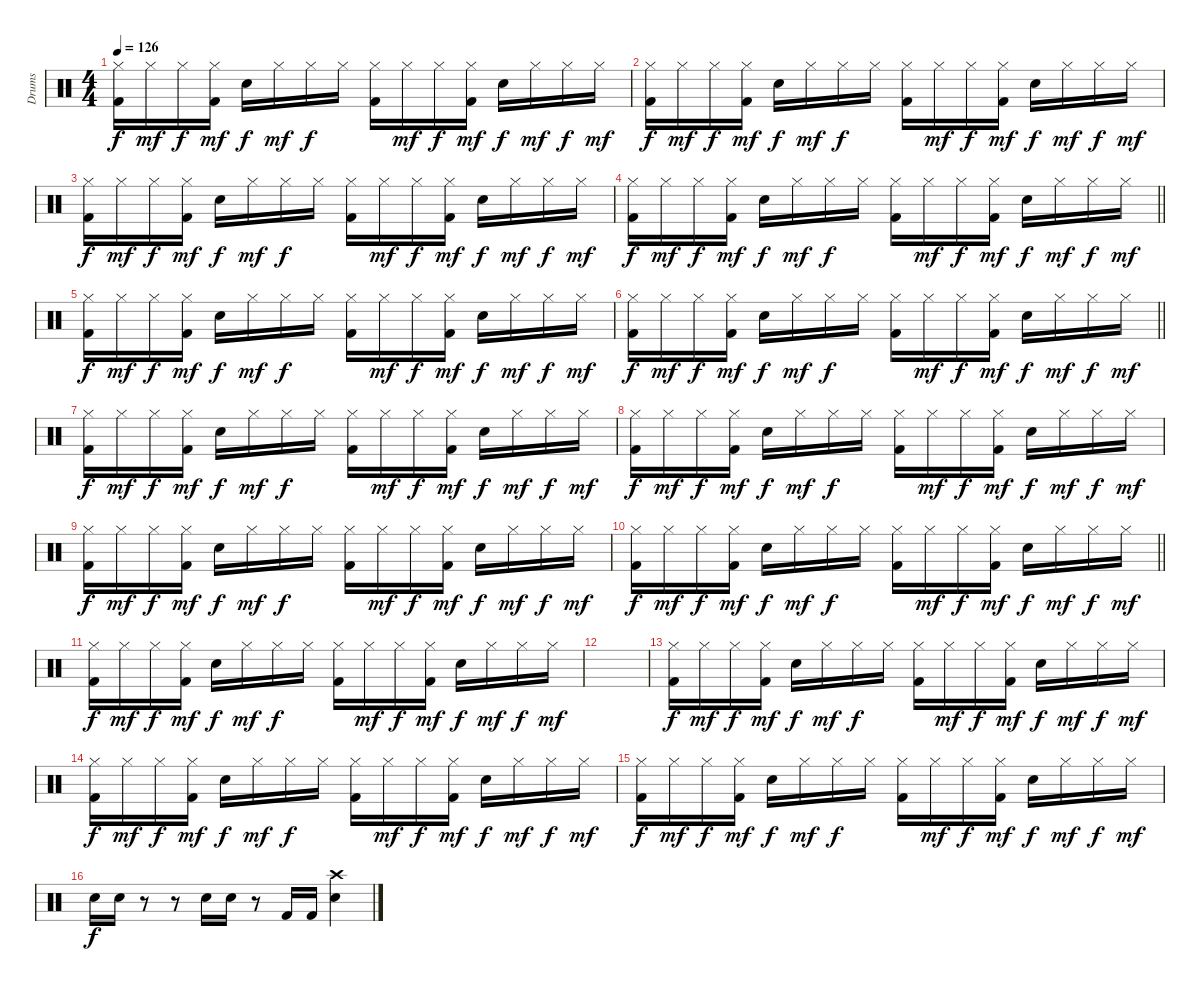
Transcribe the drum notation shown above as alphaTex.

\track ("Drums" "Drums") {instrument percussion}
\staff {score}
\articulation defaults
\ts (4 4)
\tempo 126
\clef neutral
\ks c
("Hi-Hat (closed)" "Kick (hit) 2").16{dy f} "Hi-Hat (closed)".16{dy mf} "Hi-Hat (closed)".16{dy f} ("Hi-Hat (closed)" "Kick (hit) 2").16{dy mf} "Snare (hit) 2".16{dy f} "Hi-Hat (closed)".16{dy mf} "Hi-Hat (closed)".16{dy f} "Hi-Hat (closed)".16 ("Hi-Hat (closed)" "Kick (hit) 2").16 "Hi-Hat (closed)".16{dy mf} "Hi-Hat (closed)".16{dy f} ("Hi-Hat (closed)" "Kick (hit) 2").16{dy mf} "Snare (hit) 2".16{dy f} "Hi-Hat (closed)".16{dy mf} "Hi-Hat (closed)".16{dy f} "Hi-Hat (closed)".16{dy mf} |
("Hi-Hat (closed)" "Kick (hit) 2").16{dy f} "Hi-Hat (closed)".16{dy mf} "Hi-Hat (closed)".16{dy f} ("Hi-Hat (closed)" "Kick (hit) 2").16{dy mf} "Snare (hit) 2".16{dy f} "Hi-Hat (closed)".16{dy mf} "Hi-Hat (closed)".16{dy f} "Hi-Hat (closed)".16 ("Hi-Hat (closed)" "Kick (hit) 2").16 "Hi-Hat (closed)".16{dy mf} "Hi-Hat (closed)".16{dy f} ("Hi-Hat (closed)" "Kick (hit) 2").16{dy mf} "Snare (hit) 2".16{dy f} "Hi-Hat (closed)".16{dy mf} "Hi-Hat (closed)".16{dy f} "Hi-Hat (closed)".16{dy mf} |
("Hi-Hat (closed)" "Kick (hit) 2").16{dy f} "Hi-Hat (closed)".16{dy mf} "Hi-Hat (closed)".16{dy f} ("Hi-Hat (closed)" "Kick (hit) 2").16{dy mf} "Snare (hit) 2".16{dy f} "Hi-Hat (closed)".16{dy mf} "Hi-Hat (closed)".16{dy f} "Hi-Hat (closed)".16 ("Hi-Hat (closed)" "Kick (hit) 2").16 "Hi-Hat (closed)".16{dy mf} "Hi-Hat (closed)".16{dy f} ("Hi-Hat (closed)" "Kick (hit) 2").16{dy mf} "Snare (hit) 2".16{dy f} "Hi-Hat (closed)".16{dy mf} "Hi-Hat (closed)".16{dy f} "Hi-Hat (closed)".16{dy mf} |
\barLineRight lightlight
("Hi-Hat (closed)" "Kick (hit) 2").16{dy f} "Hi-Hat (closed)".16{dy mf} "Hi-Hat (closed)".16{dy f} ("Hi-Hat (closed)" "Kick (hit) 2").16{dy mf} "Snare (hit) 2".16{dy f} "Hi-Hat (closed)".16{dy mf} "Hi-Hat (closed)".16{dy f} "Hi-Hat (closed)".16 ("Hi-Hat (closed)" "Kick (hit) 2").16 "Hi-Hat (closed)".16{dy mf} "Hi-Hat (closed)".16{dy f} ("Hi-Hat (closed)" "Kick (hit) 2").16{dy mf} "Snare (hit) 2".16{dy f} "Hi-Hat (closed)".16{dy mf} "Hi-Hat (closed)".16{dy f} "Hi-Hat (closed)".16{dy mf} |
("Hi-Hat (closed)" "Kick (hit) 2").16{dy f} "Hi-Hat (closed)".16{dy mf} "Hi-Hat (closed)".16{dy f} ("Hi-Hat (closed)" "Kick (hit) 2").16{dy mf} "Snare (hit) 2".16{dy f} "Hi-Hat (closed)".16{dy mf} "Hi-Hat (closed)".16{dy f} "Hi-Hat (closed)".16 ("Hi-Hat (closed)" "Kick (hit) 2").16 "Hi-Hat (closed)".16{dy mf} "Hi-Hat (closed)".16{dy f} ("Hi-Hat (closed)" "Kick (hit) 2").16{dy mf} "Snare (hit) 2".16{dy f} "Hi-Hat (closed)".16{dy mf} "Hi-Hat (closed)".16{dy f} "Hi-Hat (closed)".16{dy mf} |
\barLineRight lightlight
("Hi-Hat (closed)" "Kick (hit) 2").16{dy f} "Hi-Hat (closed)".16{dy mf} "Hi-Hat (closed)".16{dy f} ("Hi-Hat (closed)" "Kick (hit) 2").16{dy mf} "Snare (hit) 2".16{dy f} "Hi-Hat (closed)".16{dy mf} "Hi-Hat (closed)".16{dy f} "Hi-Hat (closed)".16 ("Hi-Hat (closed)" "Kick (hit) 2").16 "Hi-Hat (closed)".16{dy mf} "Hi-Hat (closed)".16{dy f} ("Hi-Hat (closed)" "Kick (hit) 2").16{dy mf} "Snare (hit) 2".16{dy f} "Hi-Hat (closed)".16{dy mf} "Hi-Hat (closed)".16{dy f} "Hi-Hat (closed)".16{dy mf} |
("Hi-Hat (closed)" "Kick (hit) 2").16{dy f} "Hi-Hat (closed)".16{dy mf} "Hi-Hat (closed)".16{dy f} ("Hi-Hat (closed)" "Kick (hit) 2").16{dy mf} "Snare (hit) 2".16{dy f} "Hi-Hat (closed)".16{dy mf} "Hi-Hat (closed)".16{dy f} "Hi-Hat (closed)".16 ("Hi-Hat (closed)" "Kick (hit) 2").16 "Hi-Hat (closed)".16{dy mf} "Hi-Hat (closed)".16{dy f} ("Hi-Hat (closed)" "Kick (hit) 2").16{dy mf} "Snare (hit) 2".16{dy f} "Hi-Hat (closed)".16{dy mf} "Hi-Hat (closed)".16{dy f} "Hi-Hat (closed)".16{dy mf} |
("Hi-Hat (closed)" "Kick (hit) 2").16{dy f} "Hi-Hat (closed)".16{dy mf} "Hi-Hat (closed)".16{dy f} ("Hi-Hat (closed)" "Kick (hit) 2").16{dy mf} "Snare (hit) 2".16{dy f} "Hi-Hat (closed)".16{dy mf} "Hi-Hat (closed)".16{dy f} "Hi-Hat (closed)".16 ("Hi-Hat (closed)" "Kick (hit) 2").16 "Hi-Hat (closed)".16{dy mf} "Hi-Hat (closed)".16{dy f} ("Hi-Hat (closed)" "Kick (hit) 2").16{dy mf} "Snare (hit) 2".16{dy f} "Hi-Hat (closed)".16{dy mf} "Hi-Hat (closed)".16{dy f} "Hi-Hat (closed)".16{dy mf} |
("Hi-Hat (closed)" "Kick (hit) 2").16{dy f} "Hi-Hat (closed)".16{dy mf} "Hi-Hat (closed)".16{dy f} ("Hi-Hat (closed)" "Kick (hit) 2").16{dy mf} "Snare (hit) 2".16{dy f} "Hi-Hat (closed)".16{dy mf} "Hi-Hat (closed)".16{dy f} "Hi-Hat (closed)".16 ("Hi-Hat (closed)" "Kick (hit) 2").16 "Hi-Hat (closed)".16{dy mf} "Hi-Hat (closed)".16{dy f} ("Hi-Hat (closed)" "Kick (hit) 2").16{dy mf} "Snare (hit) 2".16{dy f} "Hi-Hat (closed)".16{dy mf} "Hi-Hat (closed)".16{dy f} "Hi-Hat (closed)".16{dy mf} |
\barLineRight lightlight
("Hi-Hat (closed)" "Kick (hit) 2").16{dy f} "Hi-Hat (closed)".16{dy mf} "Hi-Hat (closed)".16{dy f} ("Hi-Hat (closed)" "Kick (hit) 2").16{dy mf} "Snare (hit) 2".16{dy f} "Hi-Hat (closed)".16{dy mf} "Hi-Hat (closed)".16{dy f} "Hi-Hat (closed)".16 ("Hi-Hat (closed)" "Kick (hit) 2").16 "Hi-Hat (closed)".16{dy mf} "Hi-Hat (closed)".16{dy f} ("Hi-Hat (closed)" "Kick (hit) 2").16{dy mf} "Snare (hit) 2".16{dy f} "Hi-Hat (closed)".16{dy mf} "Hi-Hat (closed)".16{dy f} "Hi-Hat (closed)".16{dy mf} |
("Hi-Hat (closed)" "Kick (hit) 2").16{dy f} "Hi-Hat (closed)".16{dy mf} "Hi-Hat (closed)".16{dy f} ("Hi-Hat (closed)" "Kick (hit) 2").16{dy mf} "Snare (hit) 2".16{dy f} "Hi-Hat (closed)".16{dy mf} "Hi-Hat (closed)".16{dy f} "Hi-Hat (closed)".16 ("Hi-Hat (closed)" "Kick (hit) 2").16 "Hi-Hat (closed)".16{dy mf} "Hi-Hat (closed)".16{dy f} ("Hi-Hat (closed)" "Kick (hit) 2").16{dy mf} "Snare (hit) 2".16{dy f} "Hi-Hat (closed)".16{dy mf} "Hi-Hat (closed)".16{dy f} "Hi-Hat (closed)".16{dy mf} |
|
("Hi-Hat (closed)" "Kick (hit) 2").16{dy f} "Hi-Hat (closed)".16{dy mf} "Hi-Hat (closed)".16{dy f} ("Hi-Hat (closed)" "Kick (hit) 2").16{dy mf} "Snare (hit) 2".16{dy f} "Hi-Hat (closed)".16{dy mf} "Hi-Hat (closed)".16{dy f} "Hi-Hat (closed)".16 ("Hi-Hat (closed)" "Kick (hit) 2").16 "Hi-Hat (closed)".16{dy mf} "Hi-Hat (closed)".16{dy f} ("Hi-Hat (closed)" "Kick (hit) 2").16{dy mf} "Snare (hit) 2".16{dy f} "Hi-Hat (closed)".16{dy mf} "Hi-Hat (closed)".16{dy f} "Hi-Hat (closed)".16{dy mf} |
("Hi-Hat (closed)" "Kick (hit) 2").16{dy f} "Hi-Hat (closed)".16{dy mf} "Hi-Hat (closed)".16{dy f} ("Hi-Hat (closed)" "Kick (hit) 2").16{dy mf} "Snare (hit) 2".16{dy f} "Hi-Hat (closed)".16{dy mf} "Hi-Hat (closed)".16{dy f} "Hi-Hat (closed)".16 ("Hi-Hat (closed)" "Kick (hit) 2").16 "Hi-Hat (closed)".16{dy mf} "Hi-Hat (closed)".16{dy f} ("Hi-Hat (closed)" "Kick (hit) 2").16{dy mf} "Snare (hit) 2".16{dy f} "Hi-Hat (closed)".16{dy mf} "Hi-Hat (closed)".16{dy f} "Hi-Hat (closed)".16{dy mf} |
("Hi-Hat (closed)" "Kick (hit) 2").16{dy f} "Hi-Hat (closed)".16{dy mf} "Hi-Hat (closed)".16{dy f} ("Hi-Hat (closed)" "Kick (hit) 2").16{dy mf} "Snare (hit) 2".16{dy f} "Hi-Hat (closed)".16{dy mf} "Hi-Hat (closed)".16{dy f} "Hi-Hat (closed)".16 ("Hi-Hat (closed)" "Kick (hit) 2").16 "Hi-Hat (closed)".16{dy mf} "Hi-Hat (closed)".16{dy f} ("Hi-Hat (closed)" "Kick (hit) 2").16{dy mf} "Snare (hit) 2".16{dy f} "Hi-Hat (closed)".16{dy mf} "Hi-Hat (closed)".16{dy f} "Hi-Hat (closed)".16{dy mf} |
"Snare (hit) 2".16{dy f} "Snare (hit) 2".16 r.8 r.8 "Snare (hit) 2".16 "Snare (hit) 2".16 r.8 "Kick (hit) 2".16 "Kick (hit) 2".16 ("Crash high (hit)" "Snare (hit) 2").4
